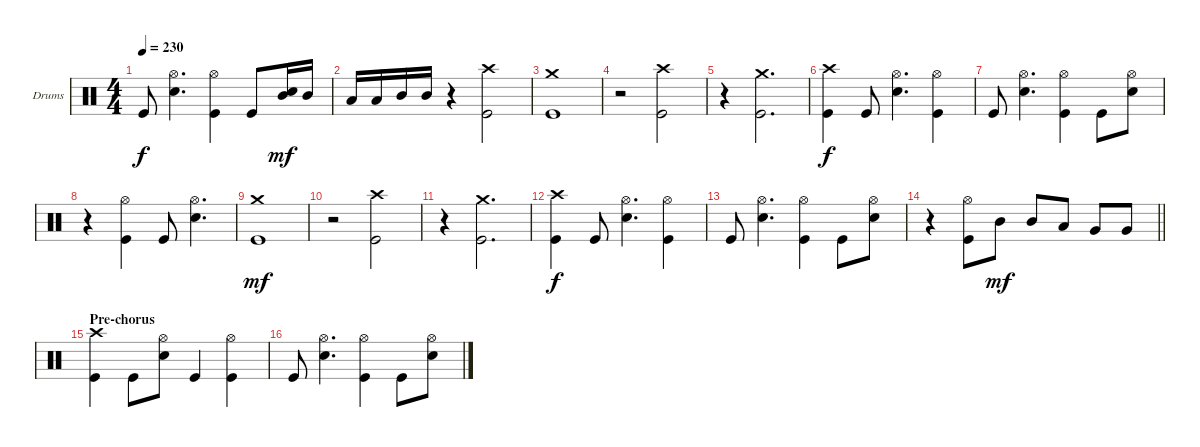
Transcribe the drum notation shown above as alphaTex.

\bracketExtendMode groupsimilarinstruments
\firstSystemTrackNameOrientation horizontal
\otherSystemsTrackNameOrientation horizontal
\track ("Drumkit" "Drums") {instrument percussion}
\staff {score}
\articulation defaults
\ts (4 4)
\tempo 230
\clef neutral
\ks c "Kick (hit)".8{dy f}
("Hi-Hat (open)" "Snare (hit) 2").4{d} ("Hi-Hat (open)" "Kick (hit)").4 "Kick (hit)".8 ("Snare (hit) 2" "Mid Tom (hit)").16{dy mf} "Mid Tom (hit)".16 |
"Low Tom (hit)".16 "Low Tom (hit)".16 "Mid Tom (hit)".16 "Mid Tom (hit)".16 r.4 ("Crash high (hit)" "Kick (hit)").2 |
("Crash medium (hit)" "Kick (hit)").1 |
r.2 ("Crash high (hit)" "Kick (hit)").2 |
r.4 ("Crash medium (hit)" "Kick (hit)").2{d} |
("Crash high (hit)" "Kick (hit)").4{dy f} "Kick (hit)".8 ("Hi-Hat (open)" "Snare (hit) 2").4{d} ("Hi-Hat (open)" "Kick (hit)").4 |
"Kick (hit)".8 ("Hi-Hat (open)" "Snare (hit) 2").4{d} ("Hi-Hat (open)" "Kick (hit)").4 "Kick (hit)".8 ("Hi-Hat (open)" "Snare (hit) 2").8 |
r.4 ("Hi-Hat (open)" "Kick (hit)").4 "Kick (hit)".8 ("Hi-Hat (open)" "Snare (hit) 2").4{d} |
("Crash medium (hit)" "Kick (hit)").1{dy mf} |
r.2 ("Crash high (hit)" "Kick (hit)").2 |
r.4 ("Crash medium (hit)" "Kick (hit)").2{d} |
("Crash high (hit)" "Kick (hit)").4{dy f} "Kick (hit)".8 ("Hi-Hat (open)" "Snare (hit) 2").4{d} ("Hi-Hat (open)" "Kick (hit)").4 |
"Kick (hit)".8 ("Hi-Hat (open)" "Snare (hit) 2").4{d} ("Hi-Hat (open)" "Kick (hit)").4 "Kick (hit)".8 ("Hi-Hat (open)" "Snare (hit) 2").8 |
\barLineRight lightlight
r.4 ("Hi-Hat (open)" "Kick (hit)").8 "Mid Tom (hit)".8{dy mf} "Mid Tom (hit)".8 "Low Tom (hit)".8 "Very Low Tom (hit)".8 "Very Low Tom (hit)".8 |
\section ("" "Pre-chorus")
("Crash high (hit)" "Kick (hit)").4 "Kick (hit)".8 ("Hi-Hat (open)" "Snare (hit) 2").8 "Kick (hit)".4 ("Hi-Hat (open)" "Kick (hit)").4 |
"Kick (hit)".8 ("Hi-Hat (open)" "Snare (hit) 2").4{d} ("Hi-Hat (open)" "Kick (hit)").4 "Kick (hit)".8 ("Hi-Hat (open)" "Snare (hit) 2").8
